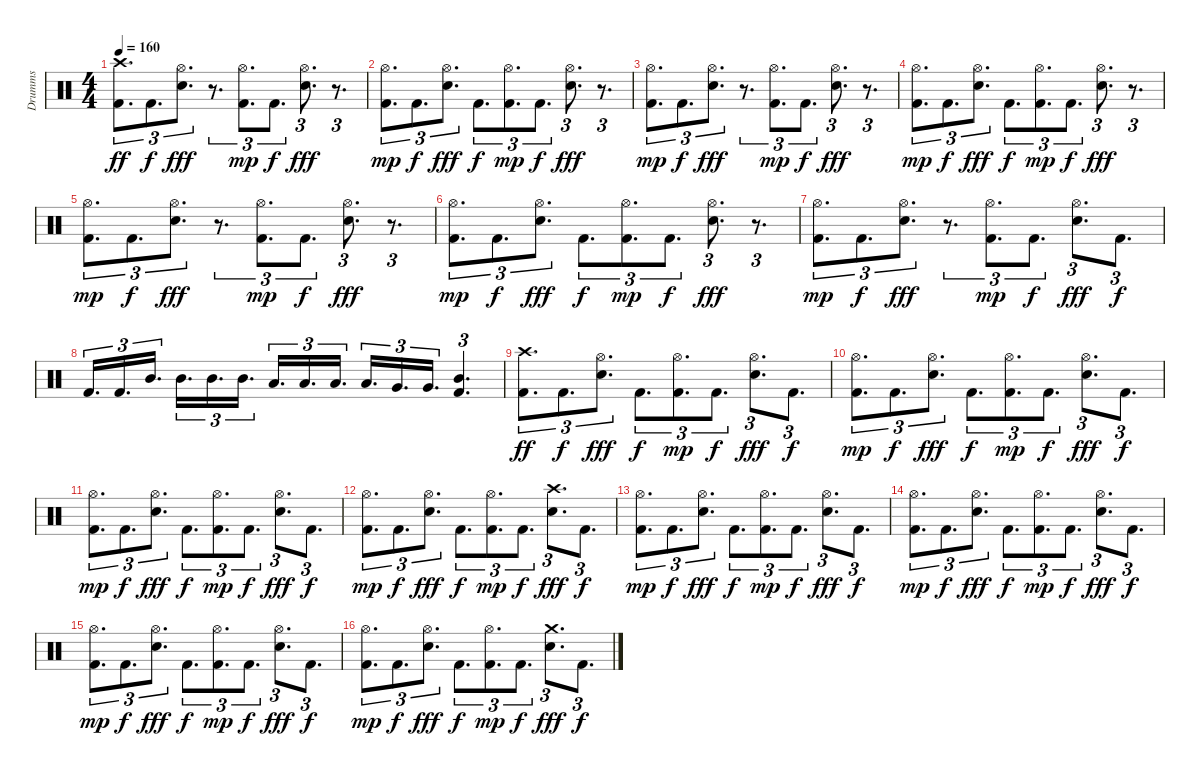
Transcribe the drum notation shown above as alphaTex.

\track ("Drumms" "Drumms") {instrument percussion}
\staff {score}
\articulation defaults
\ts (4 4)
\tempo 160
\clef neutral
\ks c
("Crash high (hit)" "Kick (hit) 2").8{d tu (3 2) dy ff} "Kick (hit) 2".8{d tu (3 2) dy f} ("Hi-Hat (open)" "Electric Snare (hit)").8{d tu (3 2) dy fff} r.8{d tu (3 2)} ("Hi-Hat (open)" "Kick (hit) 2").8{d tu (3 2) dy mp} "Kick (hit) 2".8{d tu (3 2) dy f} ("Hi-Hat (open)" "Electric Snare (hit)").8{d tu (3 2) dy fff} r.8{d tu (3 2)} |
("Hi-Hat (open)" "Kick (hit) 2").8{d tu (3 2) dy mp} "Kick (hit) 2".8{d tu (3 2) dy f} ("Hi-Hat (open)" "Electric Snare (hit)").8{d tu (3 2) dy fff} "Kick (hit) 2".8{d tu (3 2) dy f} ("Hi-Hat (open)" "Kick (hit) 2").8{d tu (3 2) dy mp} "Kick (hit) 2".8{d tu (3 2) dy f} ("Hi-Hat (open)" "Electric Snare (hit)").8{d tu (3 2) dy fff} r.8{d tu (3 2)} |
("Hi-Hat (open)" "Kick (hit) 2").8{d tu (3 2) dy mp} "Kick (hit) 2".8{d tu (3 2) dy f} ("Hi-Hat (open)" "Electric Snare (hit)").8{d tu (3 2) dy fff} r.8{d tu (3 2)} ("Hi-Hat (open)" "Kick (hit) 2").8{d tu (3 2) dy mp} "Kick (hit) 2".8{d tu (3 2) dy f} ("Hi-Hat (open)" "Electric Snare (hit)").8{d tu (3 2) dy fff} r.8{d tu (3 2)} |
("Hi-Hat (open)" "Kick (hit) 2").8{d tu (3 2) dy mp} "Kick (hit) 2".8{d tu (3 2) dy f} ("Hi-Hat (open)" "Electric Snare (hit)").8{d tu (3 2) dy fff} "Kick (hit) 2".8{d tu (3 2) dy f} ("Hi-Hat (open)" "Kick (hit) 2").8{d tu (3 2) dy mp} "Kick (hit) 2".8{d tu (3 2) dy f} ("Hi-Hat (open)" "Electric Snare (hit)").8{d tu (3 2) dy fff} r.8{d tu (3 2)} |
("Hi-Hat (open)" "Kick (hit) 2").8{d tu (3 2) dy mp} "Kick (hit) 2".8{d tu (3 2) dy f} ("Hi-Hat (open)" "Electric Snare (hit)").8{d tu (3 2) dy fff} r.8{d tu (3 2)} ("Hi-Hat (open)" "Kick (hit) 2").8{d tu (3 2) dy mp} "Kick (hit) 2".8{d tu (3 2) dy f} ("Hi-Hat (open)" "Electric Snare (hit)").8{d tu (3 2) dy fff} r.8{d tu (3 2)} |
("Hi-Hat (open)" "Kick (hit) 2").8{d tu (3 2) dy mp} "Kick (hit) 2".8{d tu (3 2) dy f} ("Hi-Hat (open)" "Electric Snare (hit)").8{d tu (3 2) dy fff} "Kick (hit) 2".8{d tu (3 2) dy f} ("Hi-Hat (open)" "Kick (hit) 2").8{d tu (3 2) dy mp} "Kick (hit) 2".8{d tu (3 2) dy f} ("Hi-Hat (open)" "Electric Snare (hit)").8{d tu (3 2) dy fff} r.8{d tu (3 2)} |
("Hi-Hat (open)" "Kick (hit) 2").8{d tu (3 2) dy mp} "Kick (hit) 2".8{d tu (3 2) dy f} ("Hi-Hat (open)" "Electric Snare (hit)").8{d tu (3 2) dy fff} r.8{d tu (3 2)} ("Hi-Hat (open)" "Kick (hit) 2").8{d tu (3 2) dy mp} "Kick (hit) 2".8{d tu (3 2) dy f} ("Hi-Hat (open)" "Electric Snare (hit)").8{d tu (3 2) dy fff} "Kick (hit) 2".8{d tu (3 2) dy f} |
"Kick (hit) 2".16{d tu (3 2)} "Kick (hit) 2".16{d tu (3 2)} "Mid Tom (hit)".16{d tu (3 2)} "Mid Tom (hit)".16{d tu (3 2)} "Mid Tom (hit)".16{d tu (3 2)} "Mid Tom (hit)".16{d tu (3 2)} "Low Tom (hit)".16{d tu (3 2)} "Low Tom (hit)".16{d tu (3 2)} "Low Tom (hit)".16{d tu (3 2)} "Low Tom (hit)".16{d tu (3 2)} "Very Low Tom (hit)".16{d tu (3 2)} "Very Low Tom (hit)".16{d tu (3 2)} ("Mid Tom (hit)" "Kick (hit) 2").4{d tu (3 2)} |
\section ("" "")
("Crash high (hit)" "Kick (hit) 2").8{d tu (3 2) dy ff} "Kick (hit) 2".8{d tu (3 2) dy f} ("Hi-Hat (open)" "Electric Snare (hit)").8{d tu (3 2) dy fff} "Kick (hit) 2".8{d tu (3 2) dy f} ("Hi-Hat (open)" "Kick (hit) 2").8{d tu (3 2) dy mp} "Kick (hit) 2".8{d tu (3 2) dy f} ("Hi-Hat (open)" "Electric Snare (hit)").8{d tu (3 2) dy fff} "Kick (hit) 2".8{d tu (3 2) dy f} |
("Hi-Hat (open)" "Kick (hit) 2").8{d tu (3 2) dy mp} "Kick (hit) 2".8{d tu (3 2) dy f} ("Hi-Hat (open)" "Electric Snare (hit)").8{d tu (3 2) dy fff} "Kick (hit) 2".8{d tu (3 2) dy f} ("Hi-Hat (open)" "Kick (hit) 2").8{d tu (3 2) dy mp} "Kick (hit) 2".8{d tu (3 2) dy f} ("Hi-Hat (open)" "Electric Snare (hit)").8{d tu (3 2) dy fff} "Kick (hit) 2".8{d tu (3 2) dy f} |
("Hi-Hat (open)" "Kick (hit) 2").8{d tu (3 2) dy mp} "Kick (hit) 2".8{d tu (3 2) dy f} ("Hi-Hat (open)" "Electric Snare (hit)").8{d tu (3 2) dy fff} "Kick (hit) 2".8{d tu (3 2) dy f} ("Hi-Hat (open)" "Kick (hit) 2").8{d tu (3 2) dy mp} "Kick (hit) 2".8{d tu (3 2) dy f} ("Hi-Hat (open)" "Electric Snare (hit)").8{d tu (3 2) dy fff} "Kick (hit) 2".8{d tu (3 2) dy f} |
("Hi-Hat (open)" "Kick (hit) 2").8{d tu (3 2) dy mp} "Kick (hit) 2".8{d tu (3 2) dy f} ("Hi-Hat (open)" "Electric Snare (hit)").8{d tu (3 2) dy fff} "Kick (hit) 2".8{d tu (3 2) dy f} ("Hi-Hat (open)" "Kick (hit) 2").8{d tu (3 2) dy mp} "Kick (hit) 2".8{d tu (3 2) dy f} ("Crash high (hit)" "Electric Snare (hit)").8{d tu (3 2) dy fff} "Kick (hit) 2".8{d tu (3 2) dy f} |
("Hi-Hat (open)" "Kick (hit) 2").8{d tu (3 2) dy mp} "Kick (hit) 2".8{d tu (3 2) dy f} ("Hi-Hat (open)" "Electric Snare (hit)").8{d tu (3 2) dy fff} "Kick (hit) 2".8{d tu (3 2) dy f} ("Hi-Hat (open)" "Kick (hit) 2").8{d tu (3 2) dy mp} "Kick (hit) 2".8{d tu (3 2) dy f} ("Hi-Hat (open)" "Electric Snare (hit)").8{d tu (3 2) dy fff} "Kick (hit) 2".8{d tu (3 2) dy f} |
("Hi-Hat (open)" "Kick (hit) 2").8{d tu (3 2) dy mp} "Kick (hit) 2".8{d tu (3 2) dy f} ("Hi-Hat (open)" "Electric Snare (hit)").8{d tu (3 2) dy fff} "Kick (hit) 2".8{d tu (3 2) dy f} ("Hi-Hat (open)" "Kick (hit) 2").8{d tu (3 2) dy mp} "Kick (hit) 2".8{d tu (3 2) dy f} ("Hi-Hat (open)" "Electric Snare (hit)").8{d tu (3 2) dy fff} "Kick (hit) 2".8{d tu (3 2) dy f} |
("Hi-Hat (open)" "Kick (hit) 2").8{d tu (3 2) dy mp} "Kick (hit) 2".8{d tu (3 2) dy f} ("Hi-Hat (open)" "Electric Snare (hit)").8{d tu (3 2) dy fff} "Kick (hit) 2".8{d tu (3 2) dy f} ("Hi-Hat (open)" "Kick (hit) 2").8{d tu (3 2) dy mp} "Kick (hit) 2".8{d tu (3 2) dy f} ("Hi-Hat (open)" "Electric Snare (hit)").8{d tu (3 2) dy fff} "Kick (hit) 2".8{d tu (3 2) dy f} |
("Hi-Hat (open)" "Kick (hit) 2").8{d tu (3 2) dy mp} "Kick (hit) 2".8{d tu (3 2) dy f} ("Hi-Hat (open)" "Electric Snare (hit)").8{d tu (3 2) dy fff} "Kick (hit) 2".8{d tu (3 2) dy f} ("Hi-Hat (open)" "Kick (hit) 2").8{d tu (3 2) dy mp} "Kick (hit) 2".8{d tu (3 2) dy f} ("Crash medium (hit)" "Electric Snare (hit)").8{d tu (3 2) dy fff} "Kick (hit) 2".8{d tu (3 2) dy f}
